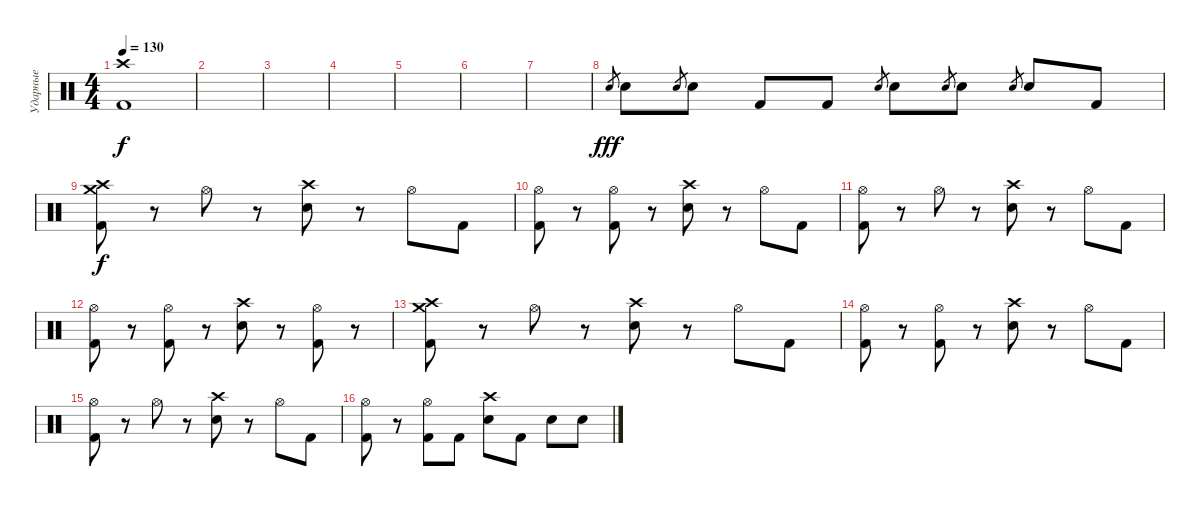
\track ("Ударные" "Ударные") {instrument percussion}
\staff {score}
\articulation defaults
\ts (4 4)
\tempo 130
\clef neutral
\ks c
("Crash high (hit)" "Kick (hit) 2").1{dy f} |
|
|
|
|
|
|
"Electric Snare (hit)".8{gr dy fff} "Electric Snare (hit)".8 "Electric Snare (hit)".8{gr} "Electric Snare (hit)".8 "Kick (hit) 2".8 "Kick (hit) 2".8 "Electric Snare (hit)".8{gr} "Electric Snare (hit)".8 "Electric Snare (hit)".8{gr} "Electric Snare (hit)".8 "Electric Snare (hit)".8{gr} "Electric Snare (hit)".8 "Kick (hit) 2".8 |
("Crash medium (hit)" "Crash high (hit)" "Kick (hit) 2").8{dy f} r.8 "Hi-Hat (open)".8 r.8 ("Crash high (hit)" "Electric Snare (hit)").8 r.8 "Hi-Hat (open)".8 "Kick (hit) 2".8 |
("Hi-Hat (open)" "Kick (hit) 2").8 r.8 ("Hi-Hat (open)" "Kick (hit) 2").8 r.8 ("Crash high (hit)" "Electric Snare (hit)").8 r.8 "Hi-Hat (open)".8 "Kick (hit) 2".8 |
("Hi-Hat (open)" "Kick (hit) 2").8 r.8 "Hi-Hat (open)".8 r.8 ("Crash high (hit)" "Electric Snare (hit)").8 r.8 "Hi-Hat (open)".8 "Kick (hit) 2".8 |
("Hi-Hat (open)" "Kick (hit) 2").8 r.8 ("Hi-Hat (open)" "Kick (hit) 2").8 r.8 ("Crash high (hit)" "Electric Snare (hit)").8 r.8 ("Hi-Hat (open)" "Kick (hit) 2").8 r.8 |
("Crash medium (hit)" "Crash high (hit)" "Kick (hit) 2").8 r.8 "Hi-Hat (open)".8 r.8 ("Crash high (hit)" "Electric Snare (hit)").8 r.8 "Hi-Hat (open)".8 "Kick (hit) 2".8 |
("Hi-Hat (open)" "Kick (hit) 2").8 r.8 ("Hi-Hat (open)" "Kick (hit) 2").8 r.8 ("Crash high (hit)" "Electric Snare (hit)").8 r.8 "Hi-Hat (open)".8 "Kick (hit) 2".8 |
("Hi-Hat (open)" "Kick (hit) 2").8 r.8 "Hi-Hat (open)".8 r.8 ("Crash high (hit)" "Electric Snare (hit)").8 r.8 "Hi-Hat (open)".8 "Kick (hit) 2".8 |
("Hi-Hat (open)" "Kick (hit) 2").8 r.8 ("Hi-Hat (open)" "Kick (hit) 2").8 "Kick (hit) 2".8 ("Crash high (hit)" "Electric Snare (hit)").8 "Kick (hit) 2".8 "Electric Snare (hit)".8 "Electric Snare (hit)".8
